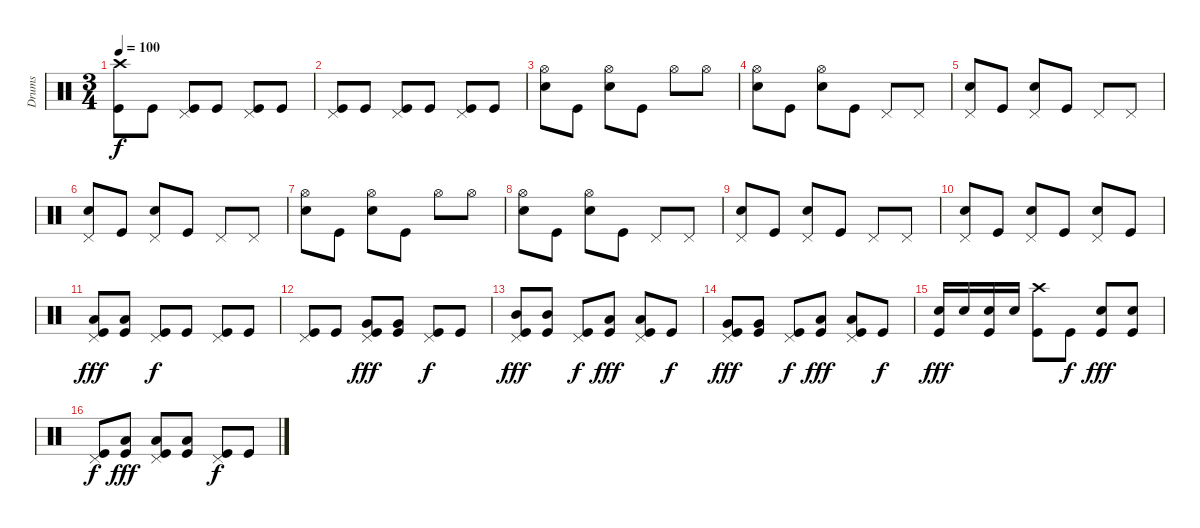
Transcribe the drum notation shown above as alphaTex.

\track ("Drums" "Drums") {instrument percussion}
\staff {score}
\articulation defaults
\ts (3 4)
\tempo 100
\clef neutral
\ks c
("Crash high (hit)" "Kick (hit)").8{dy f} "Kick (hit)".8 ("Pedal Hi-Hat (hit)" "Kick (hit)").8 "Kick (hit)".8 ("Pedal Hi-Hat (hit)" "Kick (hit)").8 "Kick (hit)".8 |
("Pedal Hi-Hat (hit)" "Kick (hit)").8 "Kick (hit)".8 ("Pedal Hi-Hat (hit)" "Kick (hit)").8 "Kick (hit)".8 ("Pedal Hi-Hat (hit)" "Kick (hit)").8 "Kick (hit)".8 |
("Hi-Hat (open)" "Snare (hit) 2").8 "Kick (hit)".8 ("Hi-Hat (open)" "Snare (hit) 2").8 "Kick (hit)".8 "Hi-Hat (open)".8 "Hi-Hat (open)".8 |
("Hi-Hat (open)" "Snare (hit) 2").8 "Kick (hit)".8 ("Hi-Hat (open)" "Snare (hit) 2").8 "Kick (hit)".8 "Pedal Hi-Hat (hit)".8 "Pedal Hi-Hat (hit)".8 |
("Pedal Hi-Hat (hit)" "Snare (hit) 2").8 "Kick (hit)".8 ("Pedal Hi-Hat (hit)" "Snare (hit) 2").8 "Kick (hit)".8 "Pedal Hi-Hat (hit)".8 "Pedal Hi-Hat (hit)".8 |
("Pedal Hi-Hat (hit)" "Snare (hit) 2").8 "Kick (hit)".8 ("Pedal Hi-Hat (hit)" "Snare (hit) 2").8 "Kick (hit)".8 "Pedal Hi-Hat (hit)".8 "Pedal Hi-Hat (hit)".8 |
("Hi-Hat (open)" "Snare (hit) 2").8 "Kick (hit)".8 ("Hi-Hat (open)" "Snare (hit) 2").8 "Kick (hit)".8 "Hi-Hat (open)".8 "Hi-Hat (open)".8 |
("Hi-Hat (open)" "Snare (hit) 2").8 "Kick (hit)".8 ("Hi-Hat (open)" "Snare (hit) 2").8 "Kick (hit)".8 "Pedal Hi-Hat (hit)".8 "Pedal Hi-Hat (hit)".8 |
("Pedal Hi-Hat (hit)" "Snare (hit) 2").8 "Kick (hit)".8 ("Pedal Hi-Hat (hit)" "Snare (hit) 2").8 "Kick (hit)".8 "Pedal Hi-Hat (hit)".8 "Pedal Hi-Hat (hit)".8 |
("Pedal Hi-Hat (hit)" "Snare (hit) 2").8 "Kick (hit)".8 ("Pedal Hi-Hat (hit)" "Snare (hit) 2").8 "Kick (hit)".8 ("Pedal Hi-Hat (hit)" "Snare (hit) 2").8 "Kick (hit)".8 |
("Pedal Hi-Hat (hit)" "Low Tom (hit)" "Kick (hit)").8{dy fff} ("Low Tom (hit)" "Kick (hit)").8 ("Pedal Hi-Hat (hit)" "Kick (hit)").8{dy f} "Kick (hit)".8 ("Pedal Hi-Hat (hit)" "Kick (hit)").8 "Kick (hit)".8 |
("Pedal Hi-Hat (hit)" "Kick (hit)").8 "Kick (hit)".8 ("Pedal Hi-Hat (hit)" "Very Low Tom (hit)" "Kick (hit)").8{dy fff} ("Very Low Tom (hit)" "Kick (hit)").8 ("Pedal Hi-Hat (hit)" "Kick (hit)").8{dy f} "Kick (hit)".8 |
("Pedal Hi-Hat (hit)" "Mid Tom (hit)" "Kick (hit)").8{dy fff} ("Mid Tom (hit)" "Kick (hit)").8 ("Pedal Hi-Hat (hit)" "Kick (hit)").8{dy f} ("Low Tom (hit)" "Kick (hit)").8{dy fff} ("Pedal Hi-Hat (hit)" "Low Tom (hit)" "Kick (hit)").8 "Kick (hit)".8{dy f} |
("Pedal Hi-Hat (hit)" "Very Low Tom (hit)" "Kick (hit)").8{dy fff} ("Very Low Tom (hit)" "Kick (hit)").8 ("Pedal Hi-Hat (hit)" "Kick (hit)").8{dy f} ("Low Floor Tom (hit)" "Kick (hit)").8{dy fff} ("Pedal Hi-Hat (hit)" "Low Floor Tom (hit)" "Kick (hit)").8 "Kick (hit)".8{dy f} |
("Snare (hit) 2" "Kick (hit)").16{dy fff} "Snare (hit) 2".16 ("Snare (hit) 2" "Kick (hit)").16 "Snare (hit) 2".16 ("Crash high (hit)" "Kick (hit)").8 "Kick (hit)".8{dy f} ("Snare (hit) 2" "Kick (hit)").8{dy fff} ("Snare (hit) 2" "Kick (hit)").8 |
("Pedal Hi-Hat (hit)" "Kick (hit)").8{dy f} ("Low Tom (hit)" "Kick (hit)").8{dy fff} ("Pedal Hi-Hat (hit)" "Low Tom (hit)" "Kick (hit)").8 ("Low Tom (hit)" "Kick (hit)").8 ("Pedal Hi-Hat (hit)" "Kick (hit)").8{dy f} "Kick (hit)".8
